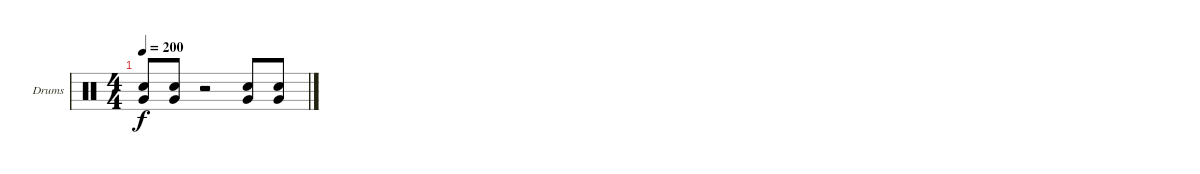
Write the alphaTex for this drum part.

\bracketExtendMode groupsimilarinstruments
\firstSystemTrackNameOrientation horizontal
\otherSystemsTrackNameOrientation horizontal
\track ("Drumkit" "Drums") {instrument percussion}
\staff {score}
\articulation defaults
\ts (4 4)
\tempo 200
\clef neutral
\ks c
("Snare (hit) 2" "Very Low Tom (hit)").8{dy f} ("Snare (hit) 2" "Very Low Tom (hit)").8 r.2 ("Snare (hit) 2" "Very Low Tom (hit)").8 ("Snare (hit) 2" "Very Low Tom (hit)").8
